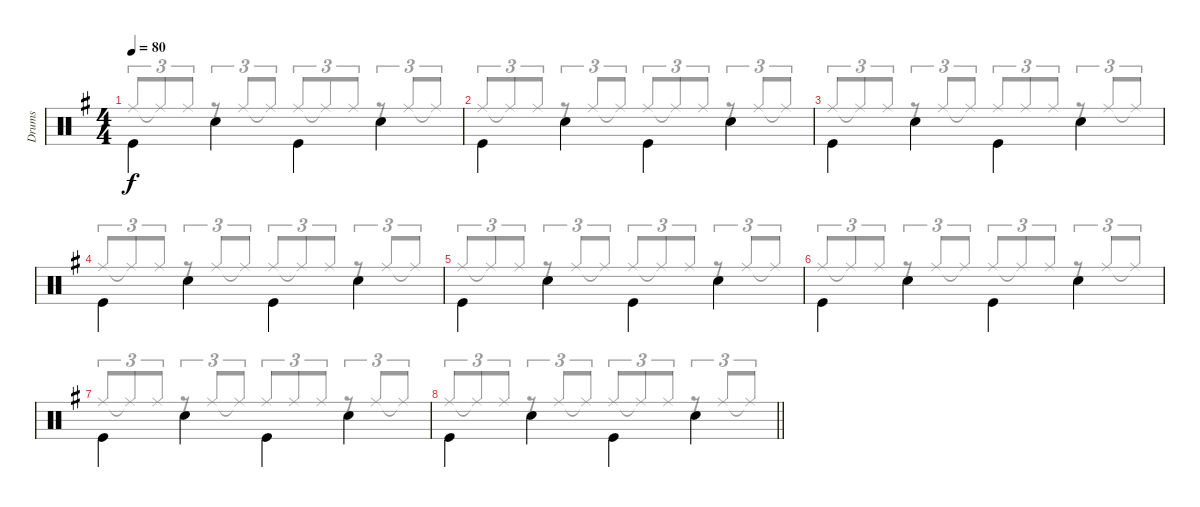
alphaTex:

\track ("Drums" "Drums") {instrument percussion}
\staff {score}
\articulation defaults
\voice
\ts (4 4)
\tempo 80
\clef neutral
\ks g "Kick (hit)".4{dy f beam Down} "Snare (hit) 2".4{beam Down} "Kick (hit)".4{beam Down} "Snare (hit) 2".4{beam Down}
|
"Kick (hit)".4{beam Down} "Snare (hit) 2".4{beam Down} "Kick (hit)".4{beam Down} "Snare (hit) 2".4{beam Down} |
"Kick (hit)".4{beam Down} "Snare (hit) 2".4{beam Down} "Kick (hit)".4{beam Down} "Snare (hit) 2".4{beam Down} |
"Kick (hit)".4{beam Down} "Snare (hit) 2".4{beam Down} "Kick (hit)".4{beam Down} "Snare (hit) 2".4{beam Down} |
"Kick (hit)".4{beam Down} "Snare (hit) 2".4{beam Down} "Kick (hit)".4{beam Down} "Snare (hit) 2".4{beam Down} |
"Kick (hit)".4{beam Down} "Snare (hit) 2".4{beam Down} "Kick (hit)".4{beam Down} "Snare (hit) 2".4{beam Down} |
"Kick (hit)".4{beam Down} "Snare (hit) 2".4{beam Down} "Kick (hit)".4{beam Down} "Snare (hit) 2".4{beam Down} |
\barLineRight lightlight "Kick (hit)".4{beam Down} "Snare (hit) 2".4{beam Down} "Kick (hit)".4{beam Down} "Snare (hit) 2".4{beam Down}
\voice
\clef neutral
\ottava regular
\simile none
\ks g "Ride (middle)".8{tu (3 2) dy f beam Up} "Ride (middle)"{t}.8{tu (3 2) beam Up} "Ride (middle)".8{tu (3 2) beam Up}
r.8{tu (3 2) beam Up} "Ride (middle)".8{tu (3 2) beam Up} "Ride (middle)"{t}.8{tu (3 2) beam Up} "Ride (middle)".8{tu (3 2) beam Up} "Ride (middle)"{t}.8{tu (3 2) beam Up} "Ride (middle)".8{tu (3 2) beam Up} r.8{tu (3 2) beam Up} "Ride (middle)".8{tu (3 2) beam Up} "Ride (middle)"{t}.8{tu (3 2) beam Up} |
"Ride (middle)".8{tu (3 2) beam Up} "Ride (middle)"{t}.8{tu (3 2) beam Up} "Ride (middle)".8{tu (3 2) beam Up} r.8{tu (3 2) beam Up} "Ride (middle)".8{tu (3 2) beam Up} "Ride (middle)"{t}.8{tu (3 2) beam Up} "Ride (middle)".8{tu (3 2) beam Up} "Ride (middle)"{t}.8{tu (3 2) beam Up} "Ride (middle)".8{tu (3 2) beam Up} r.8{tu (3 2) beam Up} "Ride (middle)".8{tu (3 2) beam Up} "Ride (middle)"{t}.8{tu (3 2) beam Up} |
"Ride (middle)".8{tu (3 2) beam Up} "Ride (middle)"{t}.8{tu (3 2) beam Up} "Ride (middle)".8{tu (3 2) beam Up} r.8{tu (3 2) beam Up} "Ride (middle)".8{tu (3 2) beam Up} "Ride (middle)"{t}.8{tu (3 2) beam Up} "Ride (middle)".8{tu (3 2) beam Up} "Ride (middle)".8{tu (3 2) beam Up} "Ride (middle)".8{tu (3 2) beam Up} r.8{tu (3 2) beam Up} "Ride (middle)".8{tu (3 2) beam Up} "Ride (middle)"{t}.8{tu (3 2) beam Up} |
"Ride (middle)".8{tu (3 2) beam Up} "Ride (middle)"{t}.8{tu (3 2) beam Up} "Ride (middle)".8{tu (3 2) beam Up} r.8{tu (3 2) beam Up} "Ride (middle)".8{tu (3 2) beam Up} "Ride (middle)"{t}.8{tu (3 2) beam Up} "Ride (middle)".8{tu (3 2) beam Up} "Ride (middle)"{t}.8{tu (3 2) beam Up} "Ride (middle)".8{tu (3 2) beam Up} r.8{tu (3 2) beam Up} "Ride (middle)".8{tu (3 2) beam Up} "Ride (middle)"{t}.8{tu (3 2) beam Up} |
"Ride (middle)".8{tu (3 2) beam Up} "Ride (middle)"{t}.8{tu (3 2) beam Up} "Ride (middle)".8{tu (3 2) beam Up} r.8{tu (3 2) beam Up} "Ride (middle)".8{tu (3 2) beam Up} "Ride (middle)"{t}.8{tu (3 2) beam Up} "Ride (middle)".8{tu (3 2) beam Up} "Ride (middle)"{t}.8{tu (3 2) beam Up} "Ride (middle)".8{tu (3 2) beam Up} r.8{tu (3 2) beam Up} "Ride (middle)".8{tu (3 2) beam Up} "Ride (middle)"{t}.8{tu (3 2) beam Up} |
"Ride (middle)".8{tu (3 2) beam Up} "Ride (middle)"{t}.8{tu (3 2) beam Up} "Ride (middle)".8{tu (3 2) beam Up} r.8{tu (3 2) beam Up} "Ride (middle)".8{tu (3 2) beam Up} "Ride (middle)"{t}.8{tu (3 2) beam Up} "Ride (middle)".8{tu (3 2) beam Up} "Ride (middle)"{t}.8{tu (3 2) beam Up} "Ride (middle)".8{tu (3 2) beam Up} r.8{tu (3 2) beam Up} "Ride (middle)".8{tu (3 2) beam Up} "Ride (middle)"{t}.8{tu (3 2) beam Up} |
"Ride (middle)".8{tu (3 2) beam Up} "Ride (middle)"{t}.8{tu (3 2) beam Up} "Ride (middle)".8{tu (3 2) beam Up} r.8{tu (3 2) beam Up} "Ride (middle)".8{tu (3 2) beam Up} "Ride (middle)"{t}.8{tu (3 2) beam Up} "Ride (middle)".8{tu (3 2) beam Up} "Ride (middle)".8{tu (3 2) beam Up} "Ride (middle)".8{tu (3 2) beam Up} r.8{tu (3 2) beam Up} "Ride (middle)".8{tu (3 2) beam Up} "Ride (middle)"{t}.8{tu (3 2) beam Up} |
\barLineRight lightlight "Ride (middle)".8{tu (3 2) beam Up} "Ride (middle)"{t}.8{tu (3 2) beam Up} "Ride (middle)".8{tu (3 2) beam Up}
r.8{tu (3 2) beam Up} "Ride (middle)".8{tu (3 2) beam Up} "Ride (middle)"{t}.8{tu (3 2) beam Up} "Ride (middle)".8{tu (3 2) beam Up} "Ride (middle)"{t}.8{tu (3 2) beam Up} "Ride (middle)".8{tu (3 2) beam Up} r.8{tu (3 2) beam Up} "Ride (middle)".8{tu (3 2) beam Up} "Ride (middle)"{t}.8{tu (3 2) beam Up}
